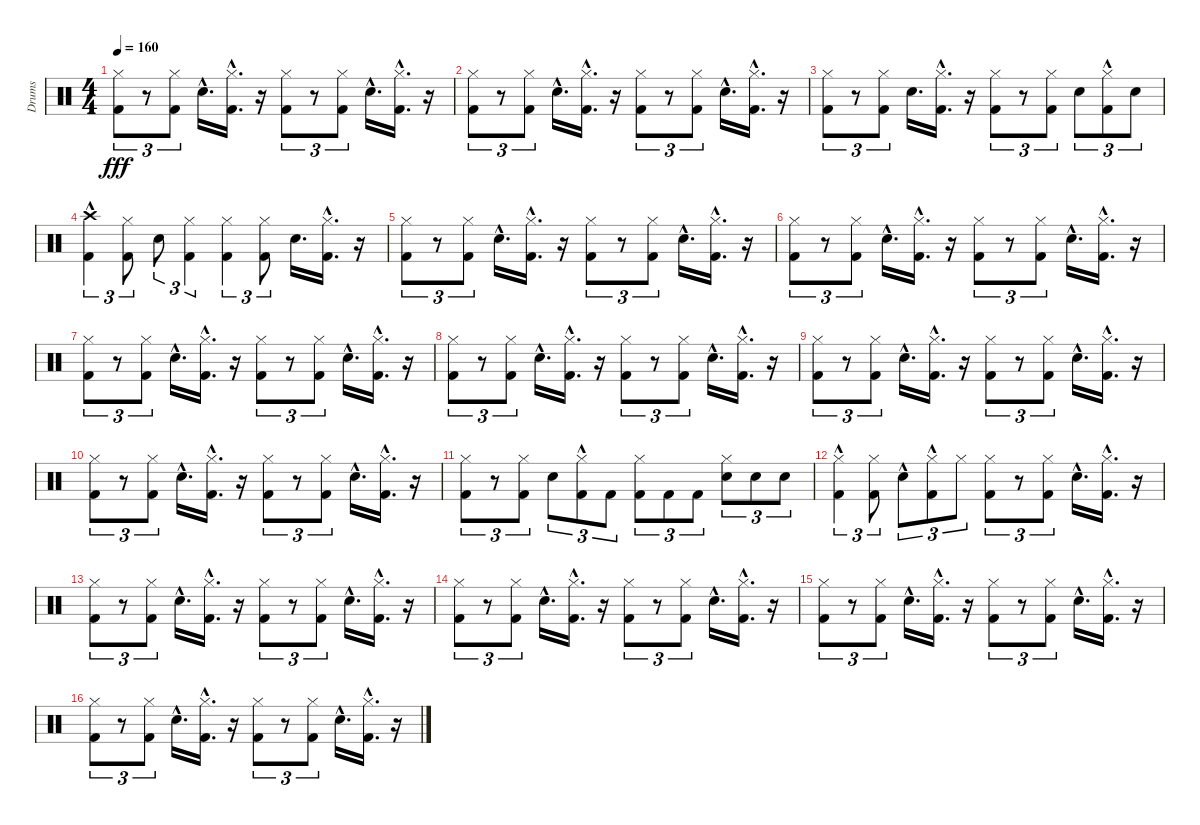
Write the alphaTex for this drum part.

\track ("Drums" "Drums") {instrument percussion}
\staff {score}
\articulation defaults
\ts (4 4)
\tempo 160
\clef neutral
\ks c
("Kick (hit) 2" "Hi-Hat (closed)").8{tu (3 2) dy fff} r.8{tu (3 2)} ("Kick (hit) 2" "Hi-Hat (closed)").8{tu (3 2)} "Snare (hit) 2"{hac}.16{d} ("Kick (hit) 2"{hac} "Hi-Hat (closed)"{hac}).16{d} r.16 ("Kick (hit) 2" "Hi-Hat (closed)").8{tu (3 2)} r.8{tu (3 2)} ("Kick (hit) 2" "Hi-Hat (closed)").8{tu (3 2)} "Snare (hit) 2"{hac}.16{d} ("Kick (hit) 2"{hac} "Hi-Hat (closed)"{hac}).16{d} r.16 |
("Kick (hit) 2" "Hi-Hat (closed)").8{tu (3 2)} r.8{tu (3 2)} ("Kick (hit) 2" "Hi-Hat (closed)").8{tu (3 2)} "Snare (hit) 2"{hac}.16{d} ("Kick (hit) 2"{hac} "Hi-Hat (closed)"{hac}).16{d} r.16 ("Kick (hit) 2" "Hi-Hat (closed)").8{tu (3 2)} r.8{tu (3 2)} ("Kick (hit) 2" "Hi-Hat (closed)").8{tu (3 2)} "Snare (hit) 2"{hac}.16{d} ("Kick (hit) 2"{hac} "Hi-Hat (closed)"{hac}).16{d} r.16 |
("Kick (hit) 2" "Hi-Hat (closed)").8{tu (3 2)} r.8{tu (3 2)} ("Kick (hit) 2" "Hi-Hat (closed)").8{tu (3 2)} "Snare (hit) 2".16{d} ("Kick (hit) 2"{hac} "Hi-Hat (closed)"{hac}).16{d} r.16 ("Kick (hit) 2" "Hi-Hat (closed)").8{tu (3 2)} r.8{tu (3 2)} ("Kick (hit) 2" "Hi-Hat (closed)").8{tu (3 2)} "Snare (hit) 2".8{tu (3 2)} ("Kick (hit) 2"{hac} "Hi-Hat (closed)"{hac}).8{tu (3 2)} "Snare (hit) 2".8{tu (3 2)} |
("Kick (hit) 2"{hac} "Crash high (hit)").4{tu (3 2)} ("Kick (hit) 2" "Hi-Hat (closed)").8{tu (3 2)} "Snare (hit) 2".8{tu (3 2)} ("Kick (hit) 2" "Hi-Hat (closed)").4{tu (3 2)} ("Kick (hit) 2" "Hi-Hat (closed)").4{tu (3 2)} ("Kick (hit) 2" "Hi-Hat (closed)").8{tu (3 2)} "Snare (hit) 2".16{d} ("Kick (hit) 2"{hac} "Hi-Hat (closed)"{hac}).16{d} r.16 |
("Kick (hit) 2" "Hi-Hat (closed)").8{tu (3 2)} r.8{tu (3 2)} ("Kick (hit) 2" "Hi-Hat (closed)").8{tu (3 2)} "Snare (hit) 2"{hac}.16{d} ("Kick (hit) 2"{hac} "Hi-Hat (closed)"{hac}).16{d} r.16 ("Kick (hit) 2" "Hi-Hat (closed)").8{tu (3 2)} r.8{tu (3 2)} ("Kick (hit) 2" "Hi-Hat (closed)").8{tu (3 2)} "Snare (hit) 2"{hac}.16{d} ("Kick (hit) 2"{hac} "Hi-Hat (closed)"{hac}).16{d} r.16 |
("Kick (hit) 2" "Hi-Hat (closed)").8{tu (3 2)} r.8{tu (3 2)} ("Kick (hit) 2" "Hi-Hat (closed)").8{tu (3 2)} "Snare (hit) 2"{hac}.16{d} ("Kick (hit) 2"{hac} "Hi-Hat (closed)"{hac}).16{d} r.16 ("Kick (hit) 2" "Hi-Hat (closed)").8{tu (3 2)} r.8{tu (3 2)} ("Kick (hit) 2" "Hi-Hat (closed)").8{tu (3 2)} "Snare (hit) 2"{hac}.16{d} ("Kick (hit) 2"{hac} "Hi-Hat (closed)"{hac}).16{d} r.16 |
("Kick (hit) 2" "Hi-Hat (closed)").8{tu (3 2)} r.8{tu (3 2)} ("Kick (hit) 2" "Hi-Hat (closed)").8{tu (3 2)} "Snare (hit) 2"{hac}.16{d} ("Kick (hit) 2"{hac} "Hi-Hat (closed)"{hac}).16{d} r.16 ("Kick (hit) 2" "Hi-Hat (closed)").8{tu (3 2)} r.8{tu (3 2)} ("Kick (hit) 2" "Hi-Hat (closed)").8{tu (3 2)} "Snare (hit) 2"{hac}.16{d} ("Kick (hit) 2"{hac} "Hi-Hat (closed)"{hac}).16{d} r.16 |
("Kick (hit) 2" "Hi-Hat (closed)").8{tu (3 2)} r.8{tu (3 2)} ("Kick (hit) 2" "Hi-Hat (closed)").8{tu (3 2)} "Snare (hit) 2"{hac}.16{d} ("Kick (hit) 2"{hac} "Hi-Hat (closed)"{hac}).16{d} r.16 ("Kick (hit) 2" "Hi-Hat (closed)").8{tu (3 2)} r.8{tu (3 2)} ("Kick (hit) 2" "Hi-Hat (closed)").8{tu (3 2)} "Snare (hit) 2"{hac}.16{d} ("Kick (hit) 2"{hac} "Hi-Hat (closed)"{hac}).16{d} r.16 |
("Kick (hit) 2" "Hi-Hat (closed)").8{tu (3 2)} r.8{tu (3 2)} ("Kick (hit) 2" "Hi-Hat (closed)").8{tu (3 2)} "Snare (hit) 2"{hac}.16{d} ("Kick (hit) 2"{hac} "Hi-Hat (closed)"{hac}).16{d} r.16 ("Kick (hit) 2" "Hi-Hat (closed)").8{tu (3 2)} r.8{tu (3 2)} ("Kick (hit) 2" "Hi-Hat (closed)").8{tu (3 2)} "Snare (hit) 2"{hac}.16{d} ("Kick (hit) 2"{hac} "Hi-Hat (closed)"{hac}).16{d} r.16 |
("Kick (hit) 2" "Hi-Hat (closed)").8{tu (3 2)} r.8{tu (3 2)} ("Kick (hit) 2" "Hi-Hat (closed)").8{tu (3 2)} "Snare (hit) 2"{hac}.16{d} ("Kick (hit) 2"{hac} "Hi-Hat (closed)"{hac}).16{d} r.16 ("Kick (hit) 2" "Hi-Hat (closed)").8{tu (3 2)} r.8{tu (3 2)} ("Kick (hit) 2" "Hi-Hat (closed)").8{tu (3 2)} "Snare (hit) 2"{hac}.16{d} ("Kick (hit) 2"{hac} "Hi-Hat (closed)"{hac}).16{d} r.16 |
("Kick (hit) 2" "Hi-Hat (closed)").8{tu (3 2)} r.8{tu (3 2)} ("Kick (hit) 2" "Hi-Hat (closed)").8{tu (3 2)} "Snare (hit) 2".8{tu (3 2)} ("Kick (hit) 2"{hac} "Hi-Hat (closed)"{hac}).8{tu (3 2)} "Kick (hit) 2".8{tu (3 2)} ("Kick (hit) 2" "Hi-Hat (closed)").8{tu (3 2)} "Kick (hit) 2".8{tu (3 2)} "Kick (hit) 2".8{tu (3 2)} ("Snare (hit) 2" "Hi-Hat (closed)").8{tu (3 2)} "Snare (hit) 2".8{tu (3 2)} "Snare (hit) 2".8{tu (3 2)} |
("Kick (hit) 2" "Hi-Hat (closed)"{hac}).4{tu (3 2)} ("Kick (hit) 2" "Hi-Hat (closed)").8{tu (3 2)} "Snare (hit) 2"{hac}.8{tu (3 2)} ("Kick (hit) 2"{hac} "Hi-Hat (closed)"{hac}).8{tu (3 2)} "Hi-Hat (closed)".8{tu (3 2)} ("Kick (hit) 2" "Hi-Hat (closed)").8{tu (3 2)} r.8{tu (3 2)} ("Kick (hit) 2" "Hi-Hat (closed)").8{tu (3 2)} "Snare (hit) 2"{hac}.16{d} ("Kick (hit) 2"{hac} "Hi-Hat (closed)"{hac}).16{d} r.16 |
("Kick (hit) 2" "Hi-Hat (closed)").8{tu (3 2)} r.8{tu (3 2)} ("Kick (hit) 2" "Hi-Hat (closed)").8{tu (3 2)} "Snare (hit) 2"{hac}.16{d} ("Kick (hit) 2"{hac} "Hi-Hat (closed)"{hac}).16{d} r.16 ("Kick (hit) 2" "Hi-Hat (closed)").8{tu (3 2)} r.8{tu (3 2)} ("Kick (hit) 2" "Hi-Hat (closed)").8{tu (3 2)} "Snare (hit) 2"{hac}.16{d} ("Kick (hit) 2"{hac} "Hi-Hat (closed)"{hac}).16{d} r.16 |
("Kick (hit) 2" "Hi-Hat (closed)").8{tu (3 2)} r.8{tu (3 2)} ("Kick (hit) 2" "Hi-Hat (closed)").8{tu (3 2)} "Snare (hit) 2"{hac}.16{d} ("Kick (hit) 2"{hac} "Hi-Hat (closed)"{hac}).16{d} r.16 ("Kick (hit) 2" "Hi-Hat (closed)").8{tu (3 2)} r.8{tu (3 2)} ("Kick (hit) 2" "Hi-Hat (closed)").8{tu (3 2)} "Snare (hit) 2"{hac}.16{d} ("Kick (hit) 2"{hac} "Hi-Hat (closed)"{hac}).16{d} r.16 |
("Kick (hit) 2" "Hi-Hat (closed)").8{tu (3 2)} r.8{tu (3 2)} ("Kick (hit) 2" "Hi-Hat (closed)").8{tu (3 2)} "Snare (hit) 2"{hac}.16{d} ("Kick (hit) 2"{hac} "Hi-Hat (closed)"{hac}).16{d} r.16 ("Kick (hit) 2" "Hi-Hat (closed)").8{tu (3 2)} r.8{tu (3 2)} ("Kick (hit) 2" "Hi-Hat (closed)").8{tu (3 2)} "Snare (hit) 2"{hac}.16{d} ("Kick (hit) 2"{hac} "Hi-Hat (closed)"{hac}).16{d} r.16 |
("Kick (hit) 2" "Hi-Hat (closed)").8{tu (3 2)} r.8{tu (3 2)} ("Kick (hit) 2" "Hi-Hat (closed)").8{tu (3 2)} "Snare (hit) 2"{hac}.16{d} ("Kick (hit) 2"{hac} "Hi-Hat (closed)"{hac}).16{d} r.16 ("Kick (hit) 2" "Hi-Hat (closed)").8{tu (3 2)} r.8{tu (3 2)} ("Kick (hit) 2" "Hi-Hat (closed)").8{tu (3 2)} "Snare (hit) 2"{hac}.16{d} ("Kick (hit) 2"{hac} "Hi-Hat (closed)"{hac}).16{d} r.16
